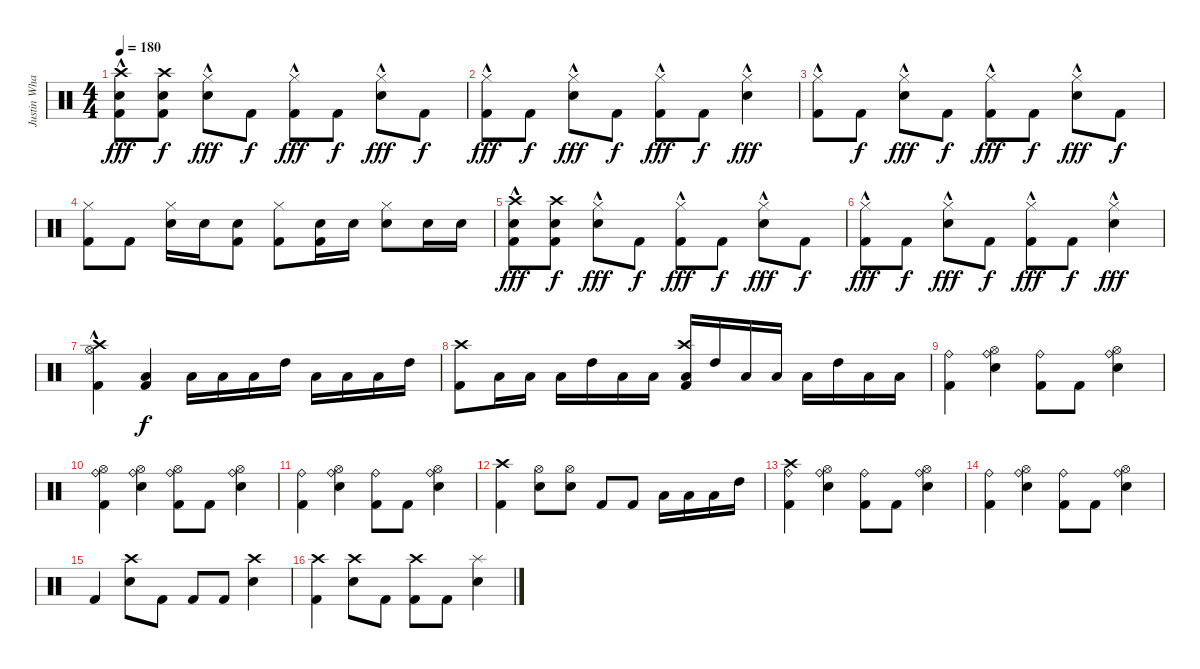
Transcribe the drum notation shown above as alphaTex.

\track ("Justin Wharton" "Justin Wha") {instrument percussion}
\staff {score}
\articulation defaults
\ts (4 4)
\tempo 180
\clef neutral
\ks c
("Kick (hit) 2" "Electric Snare (hit)" "Crash high (hit)"{hac}).8{dy fff} ("Kick (hit) 2" "Electric Snare (hit)" "Crash high (hit)").8{dy f} ("Electric Snare (hit)" "Hi-Hat (closed)"{hac}).8{dy fff} "Kick (hit) 2".8{dy f} ("Kick (hit) 2" "Hi-Hat (closed)"{hac}).8{dy fff} "Kick (hit) 2".8{dy f} ("Electric Snare (hit)" "Hi-Hat (closed)"{hac}).8{dy fff} "Kick (hit) 2".8{dy f} |
("Kick (hit) 2" "Hi-Hat (closed)"{hac}).8{dy fff} "Kick (hit) 2".8{dy f} ("Electric Snare (hit)" "Hi-Hat (closed)"{hac}).8{dy fff} "Kick (hit) 2".8{dy f} ("Kick (hit) 2" "Hi-Hat (closed)"{hac}).8{dy fff} "Kick (hit) 2".8{dy f} ("Electric Snare (hit)" "Hi-Hat (closed)"{hac}).4{dy fff} |
("Kick (hit) 2" "Hi-Hat (closed)"{hac}).8 "Kick (hit) 2".8{dy f} ("Electric Snare (hit)" "Hi-Hat (closed)"{hac}).8{dy fff} "Kick (hit) 2".8{dy f} ("Kick (hit) 2" "Hi-Hat (closed)"{hac}).8{dy fff} "Kick (hit) 2".8{dy f} ("Electric Snare (hit)" "Hi-Hat (closed)"{hac}).8{dy fff} "Kick (hit) 2".8{dy f} |
("Kick (hit) 2" "Hi-Hat (closed)").8 "Kick (hit) 2".8 ("Electric Snare (hit)" "Hi-Hat (closed)").16 "Electric Snare (hit)".16 ("Kick (hit) 2" "Electric Snare (hit)").8 ("Kick (hit) 2" "Hi-Hat (closed)").8 ("Kick (hit) 2" "Electric Snare (hit)").16 "Electric Snare (hit)".16 ("Electric Snare (hit)" "Hi-Hat (closed)").8 "Electric Snare (hit)".16 "Electric Snare (hit)".16 |
("Kick (hit) 2" "Electric Snare (hit)" "Crash high (hit)"{hac}).8{dy fff} ("Kick (hit) 2" "Electric Snare (hit)" "Crash high (hit)").8{dy f} ("Electric Snare (hit)" "Hi-Hat (closed)"{hac}).8{dy fff} "Kick (hit) 2".8{dy f} ("Kick (hit) 2" "Hi-Hat (closed)"{hac}).8{dy fff} "Kick (hit) 2".8{dy f} ("Electric Snare (hit)" "Hi-Hat (closed)"{hac}).8{dy fff} "Kick (hit) 2".8{dy f} |
("Kick (hit) 2" "Hi-Hat (closed)"{hac}).8{dy fff} "Kick (hit) 2".8{dy f} ("Electric Snare (hit)" "Hi-Hat (closed)"{hac}).8{dy fff} "Kick (hit) 2".8{dy f} ("Kick (hit) 2" "Hi-Hat (closed)"{hac}).8{dy fff} "Kick (hit) 2".8{dy f} ("Electric Snare (hit)" "Hi-Hat (closed)"{hac}).4{dy fff} |
("Kick (hit) 2" "Hi-Hat (open)"{hac} "Crash high (hit)").4 ("Kick (hit) 2" "Low Tom (hit)").4{dy f} "Low Floor Tom (hit)".16 "Low Floor Tom (hit)".16 "Low Tom (hit)".16 "High Tom (hit)".16 "Low Floor Tom (hit)".16 "Low Floor Tom (hit)".16 "Low Tom (hit)".16 "High Tom (hit)".16 |
("Kick (hit) 2" "Crash high (hit)").8 "Low Floor Tom (hit)".16 "Low Floor Tom (hit)".16 "Low Tom (hit)".16 "High Tom (hit)".16 "Low Floor Tom (hit)".16 "Low Floor Tom (hit)".16 ("Kick (hit) 2" "Low Tom (hit)" "Crash high (hit)").16 "High Tom (hit)".16 "Low Floor Tom (hit)".16 "Low Floor Tom (hit)".16 "Low Tom (hit)".16 "High Tom (hit)".16 "Low Floor Tom (hit)".16 "Low Floor Tom (hit)".16 |
("Kick (hit) 2" "Ride (bell)").4 ("Hi-Hat (open)" "Electric Snare (hit)" "Ride (bell)").4 ("Kick (hit) 2" "Ride (bell)").8 "Kick (hit) 2".8 ("Hi-Hat (open)" "Electric Snare (hit)" "Ride (bell)").4 |
("Kick (hit) 2" "Hi-Hat (open)" "Ride (bell)").4 ("Hi-Hat (open)" "Electric Snare (hit)" "Ride (bell)").4 ("Kick (hit) 2" "Hi-Hat (open)" "Ride (bell)").8 "Kick (hit) 2".8 ("Hi-Hat (open)" "Electric Snare (hit)" "Ride (bell)").4 |
("Kick (hit) 2" "Ride (bell)").4 ("Hi-Hat (open)" "Electric Snare (hit)" "Ride (bell)").4 ("Kick (hit) 2" "Ride (bell)").8 "Kick (hit) 2".8 ("Hi-Hat (open)" "Electric Snare (hit)" "Ride (bell)").4 |
("Kick (hit) 2" "Crash high (hit)").4 ("Electric Snare (hit)" "Hi-Hat (open)").8 ("Electric Snare (hit)" "Hi-Hat (open)").8 "Kick (hit) 2".8 "Kick (hit) 2".8 "Low Floor Tom (hit)".16 "Low Floor Tom (hit)".16 "Low Tom (hit)".16 "High Tom (hit)".16 |
("Kick (hit) 2" "Ride (bell)" "Crash high (hit)").4 ("Hi-Hat (open)" "Electric Snare (hit)" "Ride (bell)").4 ("Kick (hit) 2" "Ride (bell)").8 "Kick (hit) 2".8 ("Hi-Hat (open)" "Electric Snare (hit)" "Ride (bell)").4 |
("Kick (hit) 2" "Ride (bell)").4 ("Hi-Hat (open)" "Electric Snare (hit)" "Ride (bell)").4 ("Kick (hit) 2" "Ride (bell)").8 "Kick (hit) 2".8 ("Hi-Hat (open)" "Electric Snare (hit)" "Ride (bell)").4 |
"Kick (hit) 2".4 ("Electric Snare (hit)" "Crash high (hit)").8 "Kick (hit) 2".8 "Kick (hit) 2".8 "Kick (hit) 2".8 ("Electric Snare (hit)" "Crash high (hit)").4 |
("Kick (hit) 2" "Crash high (hit)").4 ("Electric Snare (hit)" "Crash high (hit)").8 "Kick (hit) 2".8 ("Kick (hit) 2" "Crash high (hit)").8 "Kick (hit) 2".8 ("Electric Snare (hit)" "Splash (hit)").4
